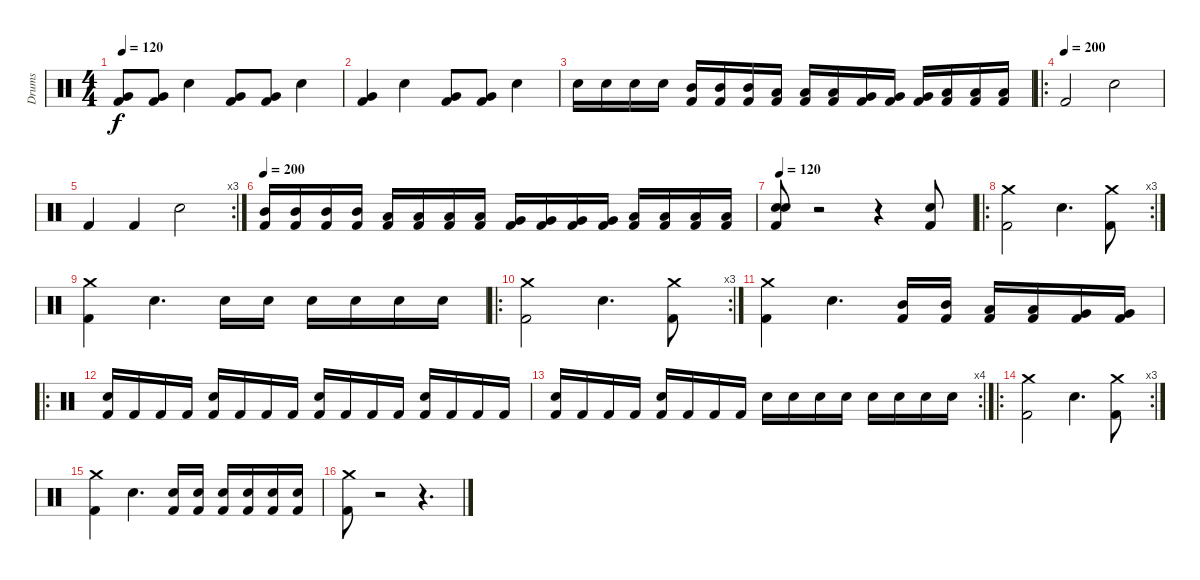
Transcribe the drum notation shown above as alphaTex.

\track ("Drums" "Drums") {instrument percussion}
\staff {score}
\articulation defaults
\ts (4 4)
\tempo 120
\clef neutral
\ks c
("Very Low Tom (hit)" "Kick (hit) 2").8{dy f} ("Very Low Tom (hit)" "Kick (hit) 2").8 "Snare (hit) 2".4 ("Very Low Tom (hit)" "Kick (hit) 2").8 ("Very Low Tom (hit)" "Kick (hit) 2").8 "Snare (hit) 2".4 |
("Very Low Tom (hit)" "Kick (hit) 2").4 "Snare (hit) 2".4 ("Very Low Tom (hit)" "Kick (hit) 2").8 ("Very Low Tom (hit)" "Kick (hit) 2").8 "Snare (hit) 2".4 |
"Snare (hit) 2".16 "Snare (hit) 2".16 "Snare (hit) 2".16 "Snare (hit) 2".16 ("Mid Tom (hit)" "Kick (hit) 2").16 ("Mid Tom (hit)" "Kick (hit) 2").16 ("Mid Tom (hit)" "Kick (hit) 2").16 ("Low Tom (hit)" "Kick (hit) 2").16 ("Low Tom (hit)" "Kick (hit) 2").16 ("Low Tom (hit)" "Kick (hit) 2").16 ("Very Low Tom (hit)" "Kick (hit) 2").16 ("Very Low Tom (hit)" "Kick (hit) 2").16 ("Very Low Tom (hit)" "Kick (hit) 2").16 ("Low Floor Tom (hit)" "Kick (hit) 2").16 ("Low Floor Tom (hit)" "Kick (hit) 2").16 ("Low Floor Tom (hit)" "Kick (hit) 2").16 |
\ro
\tempo (200)
"Kick (hit) 2".2 "Snare (hit) 2".2 |
\rc 3 "Kick (hit) 2".4 "Kick (hit) 2".4 "Snare (hit) 2".2
|
\tempo 200
("Mid Tom (hit)" "Kick (hit) 2").16 ("Mid Tom (hit)" "Kick (hit) 2").16 ("Mid Tom (hit)" "Kick (hit) 2").16 ("Mid Tom (hit)" "Kick (hit) 2").16 ("Low Tom (hit)" "Kick (hit) 2").16 ("Low Tom (hit)" "Kick (hit) 2").16 ("Low Tom (hit)" "Kick (hit) 2").16 ("Low Tom (hit)" "Kick (hit) 2").16 ("Very Low Tom (hit)" "Kick (hit) 2").16 ("Very Low Tom (hit)" "Kick (hit) 2").16 ("Very Low Tom (hit)" "Kick (hit) 2").16 ("Very Low Tom (hit)" "Kick (hit) 2").16 ("Low Floor Tom (hit)" "Kick (hit) 2").16 ("Low Floor Tom (hit)" "Kick (hit) 2").16 ("Low Floor Tom (hit)" "Kick (hit) 2").16 ("Low Floor Tom (hit)" "Kick (hit) 2").16 |
\tempo 120
("Kick (hit) 2" "Snare (hit) 2" "Snare (hit) 2").8 r.2 r.4 ("Snare (hit) 2" "Kick (hit) 2").8 |
\ro
\rc 3
("Crash medium (hit)" "Kick (hit) 2").2 "Snare (hit) 2".4{d} ("Crash medium (hit)" "Kick (hit) 2").8 |
("Crash medium (hit)" "Kick (hit) 2").4 "Snare (hit) 2".4{d} "Snare (hit) 2".16 "Snare (hit) 2".16 "Snare (hit) 2".16 "Snare (hit) 2".16 "Snare (hit) 2".16 "Snare (hit) 2".16 |
\ro
\rc 3
("Crash medium (hit)" "Kick (hit) 2").2 "Snare (hit) 2".4{d} ("Crash medium (hit)" "Kick (hit) 2").8 |
("Crash medium (hit)" "Kick (hit) 2").4 "Snare (hit) 2".4{d} ("Kick (hit) 2" "Mid Tom (hit)").16 ("Kick (hit) 2" "Mid Tom (hit)").16 ("Kick (hit) 2" "Low Tom (hit)").16 ("Kick (hit) 2" "Low Tom (hit)").16 ("Kick (hit) 2" "Very Low Tom (hit)").16 ("Kick (hit) 2" "Very Low Tom (hit)").16 |
\ro
("Snare (hit) 2" "Kick (hit) 2").16 "Kick (hit) 2".16 "Kick (hit) 2".16 "Kick (hit) 2".16 ("Snare (hit) 2" "Kick (hit) 2").16 "Kick (hit) 2".16 "Kick (hit) 2".16 "Kick (hit) 2".16 ("Snare (hit) 2" "Kick (hit) 2").16 "Kick (hit) 2".16 "Kick (hit) 2".16 "Kick (hit) 2".16 ("Snare (hit) 2" "Kick (hit) 2").16 "Kick (hit) 2".16 "Kick (hit) 2".16 "Kick (hit) 2".16 |
\rc 4
("Snare (hit) 2" "Kick (hit) 2").16 "Kick (hit) 2".16 "Kick (hit) 2".16 "Kick (hit) 2".16 ("Snare (hit) 2" "Kick (hit) 2").16 "Kick (hit) 2".16 "Kick (hit) 2".16 "Kick (hit) 2".16 "Snare (hit) 2".16 "Snare (hit) 2".16 "Snare (hit) 2".16 "Snare (hit) 2".16 "Snare (hit) 2".16 "Snare (hit) 2".16 "Snare (hit) 2".16 "Snare (hit) 2".16 |
\ro
\rc 3
("Crash medium (hit)" "Kick (hit) 2").2 "Snare (hit) 2".4{d} ("Crash medium (hit)" "Kick (hit) 2").8 |
("Crash medium (hit)" "Kick (hit) 2").4 "Snare (hit) 2".4{d} ("Kick (hit) 2" "Snare (hit) 2").16 ("Kick (hit) 2" "Snare (hit) 2").16 ("Kick (hit) 2" "Snare (hit) 2").16 ("Kick (hit) 2" "Snare (hit) 2").16 ("Kick (hit) 2" "Snare (hit) 2").16 ("Kick (hit) 2" "Snare (hit) 2").16 |
("Crash medium (hit)" "Kick (hit) 2").8 r.2 r.4{d}
